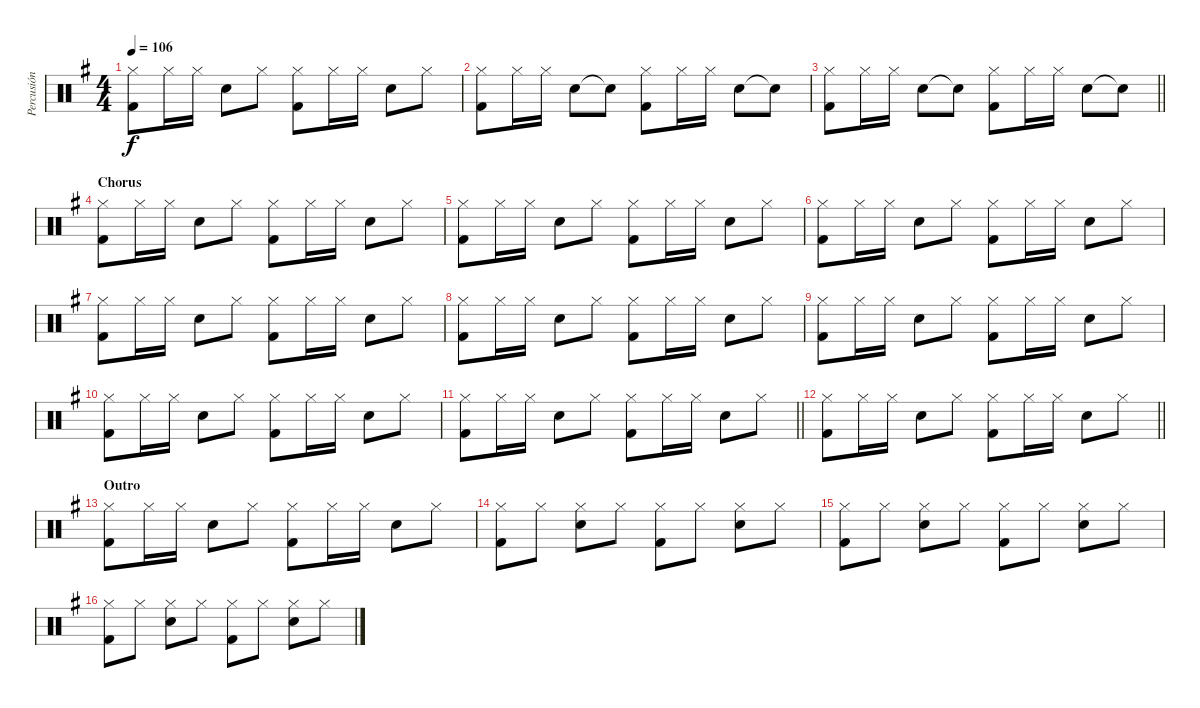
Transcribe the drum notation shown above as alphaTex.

\track ("Percusión" "Percusión") {instrument percussion}
\staff {score}
\articulation defaults
\ts (4 4)
\tempo 106
\clef neutral
\ks g
("Kick (hit) 2" "Hi-Hat (closed)").8{dy f} "Hi-Hat (closed)".16 "Hi-Hat (closed)".16 "Electric Snare (hit)".8 "Hi-Hat (closed)".8 ("Kick (hit) 2" "Hi-Hat (closed)").8 "Hi-Hat (closed)".16 "Hi-Hat (closed)".16 "Electric Snare (hit)".8 "Hi-Hat (closed)".8 |
("Kick (hit) 2" "Hi-Hat (closed)").8 "Hi-Hat (closed)".16 "Hi-Hat (closed)".16 "Electric Snare (hit)".8 "Electric Snare (hit)"{t}.8 ("Kick (hit) 2" "Hi-Hat (closed)").8 "Hi-Hat (closed)".16 "Hi-Hat (closed)".16 "Electric Snare (hit)".8 "Electric Snare (hit)"{t}.8 |
\barLineRight lightlight
("Kick (hit) 2" "Hi-Hat (closed)").8 "Hi-Hat (closed)".16 "Hi-Hat (closed)".16 "Electric Snare (hit)".8 "Electric Snare (hit)"{t}.8 ("Kick (hit) 2" "Hi-Hat (closed)").8 "Hi-Hat (closed)".16 "Hi-Hat (closed)".16 "Electric Snare (hit)".8 "Electric Snare (hit)"{t}.8 |
\section ("" "Chorus")
("Kick (hit) 2" "Hi-Hat (closed)").8 "Hi-Hat (closed)".16 "Hi-Hat (closed)".16 "Electric Snare (hit)".8 "Hi-Hat (closed)".8 ("Kick (hit) 2" "Hi-Hat (closed)").8 "Hi-Hat (closed)".16 "Hi-Hat (closed)".16 "Electric Snare (hit)".8 "Hi-Hat (closed)".8 |
("Kick (hit) 2" "Hi-Hat (closed)").8 "Hi-Hat (closed)".16 "Hi-Hat (closed)".16 "Electric Snare (hit)".8 "Hi-Hat (closed)".8 ("Kick (hit) 2" "Hi-Hat (closed)").8 "Hi-Hat (closed)".16 "Hi-Hat (closed)".16 "Electric Snare (hit)".8 "Hi-Hat (closed)".8 |
("Kick (hit) 2" "Hi-Hat (closed)").8 "Hi-Hat (closed)".16 "Hi-Hat (closed)".16 "Electric Snare (hit)".8 "Hi-Hat (closed)".8 ("Kick (hit) 2" "Hi-Hat (closed)").8 "Hi-Hat (closed)".16 "Hi-Hat (closed)".16 "Electric Snare (hit)".8 "Hi-Hat (closed)".8 |
("Kick (hit) 2" "Hi-Hat (closed)").8 "Hi-Hat (closed)".16 "Hi-Hat (closed)".16 "Electric Snare (hit)".8 "Hi-Hat (closed)".8 ("Kick (hit) 2" "Hi-Hat (closed)").8 "Hi-Hat (closed)".16 "Hi-Hat (closed)".16 "Electric Snare (hit)".8 "Hi-Hat (closed)".8 |
("Kick (hit) 2" "Hi-Hat (closed)").8 "Hi-Hat (closed)".16 "Hi-Hat (closed)".16 "Electric Snare (hit)".8 "Hi-Hat (closed)".8 ("Kick (hit) 2" "Hi-Hat (closed)").8 "Hi-Hat (closed)".16 "Hi-Hat (closed)".16 "Electric Snare (hit)".8 "Hi-Hat (closed)".8 |
("Kick (hit) 2" "Hi-Hat (closed)").8 "Hi-Hat (closed)".16 "Hi-Hat (closed)".16 "Electric Snare (hit)".8 "Hi-Hat (closed)".8 ("Kick (hit) 2" "Hi-Hat (closed)").8 "Hi-Hat (closed)".16 "Hi-Hat (closed)".16 "Electric Snare (hit)".8 "Hi-Hat (closed)".8 |
("Kick (hit) 2" "Hi-Hat (closed)").8 "Hi-Hat (closed)".16 "Hi-Hat (closed)".16 "Electric Snare (hit)".8 "Hi-Hat (closed)".8 ("Kick (hit) 2" "Hi-Hat (closed)").8 "Hi-Hat (closed)".16 "Hi-Hat (closed)".16 "Electric Snare (hit)".8 "Hi-Hat (closed)".8 |
\barLineRight lightlight
("Kick (hit) 2" "Hi-Hat (closed)").8 "Hi-Hat (closed)".16 "Hi-Hat (closed)".16 "Electric Snare (hit)".8 "Hi-Hat (closed)".8 ("Kick (hit) 2" "Hi-Hat (closed)").8 "Hi-Hat (closed)".16 "Hi-Hat (closed)".16 "Electric Snare (hit)".8 "Hi-Hat (closed)".8 |
\barLineRight lightlight
("Kick (hit) 2" "Hi-Hat (closed)").8 "Hi-Hat (closed)".16 "Hi-Hat (closed)".16 "Electric Snare (hit)".8 "Hi-Hat (closed)".8 ("Kick (hit) 2" "Hi-Hat (closed)").8 "Hi-Hat (closed)".16 "Hi-Hat (closed)".16 "Electric Snare (hit)".8 "Hi-Hat (closed)".8 |
\section ("" "Outro")
("Kick (hit) 2" "Hi-Hat (closed)").8 "Hi-Hat (closed)".16 "Hi-Hat (closed)".16 "Electric Snare (hit)".8 "Hi-Hat (closed)".8 ("Kick (hit) 2" "Hi-Hat (closed)").8 "Hi-Hat (closed)".16 "Hi-Hat (closed)".16 "Electric Snare (hit)".8 "Hi-Hat (closed)".8 |
("Kick (hit) 2" "Hi-Hat (closed)").8 "Hi-Hat (closed)".8 ("Electric Snare (hit)" "Hi-Hat (closed)").8 "Hi-Hat (closed)".8 ("Kick (hit) 2" "Hi-Hat (closed)").8 "Hi-Hat (closed)".8 ("Electric Snare (hit)" "Hi-Hat (closed)").8 "Hi-Hat (closed)".8 |
("Kick (hit) 2" "Hi-Hat (closed)").8 "Hi-Hat (closed)".8 ("Electric Snare (hit)" "Hi-Hat (closed)").8 "Hi-Hat (closed)".8 ("Kick (hit) 2" "Hi-Hat (closed)").8 "Hi-Hat (closed)".8 ("Electric Snare (hit)" "Hi-Hat (closed)").8 "Hi-Hat (closed)".8 |
("Kick (hit) 2" "Hi-Hat (closed)").8 "Hi-Hat (closed)".8 ("Electric Snare (hit)" "Hi-Hat (closed)").8 "Hi-Hat (closed)".8 ("Kick (hit) 2" "Hi-Hat (closed)").8 "Hi-Hat (closed)".8 ("Electric Snare (hit)" "Hi-Hat (closed)").8 "Hi-Hat (closed)".8
